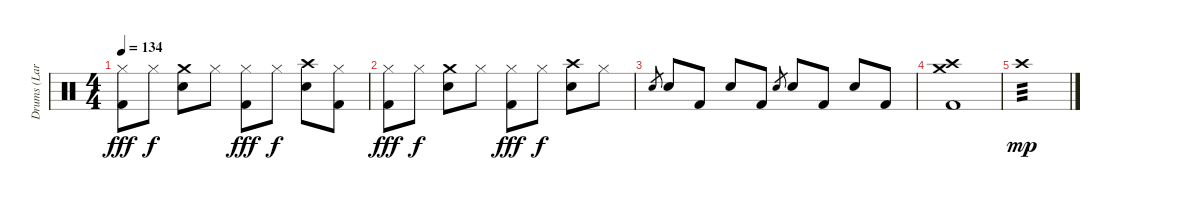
\track ("Drums (Lars)" "Drums (Lar") {instrument percussion}
\staff {score}
\articulation defaults
\ts (4 4)
\tempo 134
\clef neutral
\ks c
("Hi-Hat (closed)" "Kick (hit) 2").8{dy fff} "Hi-Hat (closed)".8{dy f} ("Crash medium (hit)" "Snare (hit) 2").8 "Hi-Hat (closed)".8 ("Hi-Hat (closed)" "Kick (hit) 2").8{dy fff} "Hi-Hat (closed)".8{dy f} ("Crash high (hit)" "Snare (hit) 2").8 ("Hi-Hat (closed)" "Kick (hit) 2").8 |
("Hi-Hat (closed)" "Kick (hit) 2").8{dy fff} "Hi-Hat (closed)".8{dy f} ("Crash medium (hit)" "Snare (hit) 2").8 "Hi-Hat (closed)".8 ("Hi-Hat (closed)" "Kick (hit) 2").8{dy fff} "Hi-Hat (closed)".8{dy f} ("Crash high (hit)" "Snare (hit) 2").8 "Hi-Hat (closed)".8 |
"Snare (hit) 2".8{gr} "Snare (hit) 2".8 "Kick (hit) 2".8 "Snare (hit) 2".8 "Kick (hit) 2".8 "Snare (hit) 2".8{gr} "Snare (hit) 2".8 "Kick (hit) 2".8 "Snare (hit) 2".8 "Kick (hit) 2".8 |
("Crash medium (hit)" "Crash high (hit)" "Kick (hit) 2").1 |
"Crash high (hit)".1{tp 3 dy mp}
